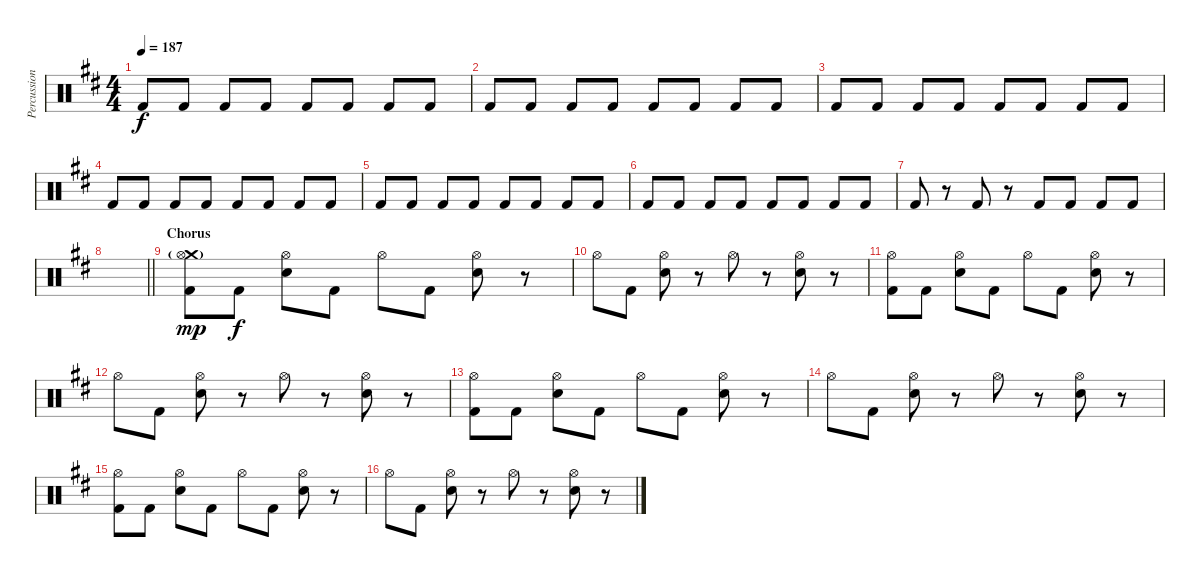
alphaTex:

\track ("Percussion" "Percussion") {instrument percussion}
\staff {score}
\articulation defaults
\ts (4 4)
\tempo 187
\clef neutral
\ks d "Kick (hit) 2".8{dy f} "Kick (hit) 2".8 "Kick (hit) 2".8 "Kick (hit) 2".8 "Kick (hit) 2".8 "Kick (hit) 2".8 "Kick (hit) 2".8 "Kick (hit) 2".8
|
"Kick (hit) 2".8 "Kick (hit) 2".8 "Kick (hit) 2".8 "Kick (hit) 2".8 "Kick (hit) 2".8 "Kick (hit) 2".8 "Kick (hit) 2".8 "Kick (hit) 2".8 |
"Kick (hit) 2".8 "Kick (hit) 2".8 "Kick (hit) 2".8 "Kick (hit) 2".8 "Kick (hit) 2".8 "Kick (hit) 2".8 "Kick (hit) 2".8 "Kick (hit) 2".8 |
"Kick (hit) 2".8 "Kick (hit) 2".8 "Kick (hit) 2".8 "Kick (hit) 2".8 "Kick (hit) 2".8 "Kick (hit) 2".8 "Kick (hit) 2".8 "Kick (hit) 2".8 |
"Kick (hit) 2".8 "Kick (hit) 2".8 "Kick (hit) 2".8 "Kick (hit) 2".8 "Kick (hit) 2".8 "Kick (hit) 2".8 "Kick (hit) 2".8 "Kick (hit) 2".8 |
"Kick (hit) 2".8 "Kick (hit) 2".8 "Kick (hit) 2".8 "Kick (hit) 2".8 "Kick (hit) 2".8 "Kick (hit) 2".8 "Kick (hit) 2".8 "Kick (hit) 2".8 |
"Kick (hit) 2".8 r.8 "Kick (hit) 2".8 r.8 "Kick (hit) 2".8 "Kick (hit) 2".8 "Kick (hit) 2".8 "Kick (hit) 2".8 |
\barLineRight lightlight
|
\section ("" "Chorus")
("Crash medium (hit)"{g} "Hi-Hat (open)" "Kick (hit) 2").8{dy mp} "Kick (hit) 2".8{dy f} ("Hi-Hat (open)" "Snare (hit) 2").8 "Kick (hit) 2".8 "Hi-Hat (open)".8 "Kick (hit) 2".8 ("Hi-Hat (open)" "Snare (hit) 2").8 r.8 |
"Hi-Hat (open)".8 "Kick (hit) 2".8 ("Hi-Hat (open)" "Snare (hit) 2").8 r.8 "Hi-Hat (open)".8 r.8 ("Hi-Hat (open)" "Snare (hit) 2").8 r.8 |
("Hi-Hat (open)" "Kick (hit) 2").8 "Kick (hit) 2".8 ("Hi-Hat (open)" "Snare (hit) 2").8 "Kick (hit) 2".8 "Hi-Hat (open)".8 "Kick (hit) 2".8 ("Hi-Hat (open)" "Snare (hit) 2").8 r.8 |
"Hi-Hat (open)".8 "Kick (hit) 2".8 ("Hi-Hat (open)" "Snare (hit) 2").8 r.8 "Hi-Hat (open)".8 r.8 ("Hi-Hat (open)" "Snare (hit) 2").8 r.8 |
("Hi-Hat (open)" "Kick (hit) 2").8 "Kick (hit) 2".8 ("Hi-Hat (open)" "Snare (hit) 2").8 "Kick (hit) 2".8 "Hi-Hat (open)".8 "Kick (hit) 2".8 ("Hi-Hat (open)" "Snare (hit) 2").8 r.8 |
"Hi-Hat (open)".8 "Kick (hit) 2".8 ("Hi-Hat (open)" "Snare (hit) 2").8 r.8 "Hi-Hat (open)".8 r.8 ("Hi-Hat (open)" "Snare (hit) 2").8 r.8 |
("Hi-Hat (open)" "Kick (hit) 2").8 "Kick (hit) 2".8 ("Hi-Hat (open)" "Snare (hit) 2").8 "Kick (hit) 2".8 "Hi-Hat (open)".8 "Kick (hit) 2".8 ("Hi-Hat (open)" "Snare (hit) 2").8 r.8 |
"Hi-Hat (open)".8 "Kick (hit) 2".8 ("Hi-Hat (open)" "Snare (hit) 2").8 r.8 "Hi-Hat (open)".8 r.8 ("Hi-Hat (open)" "Snare (hit) 2").8 r.8
